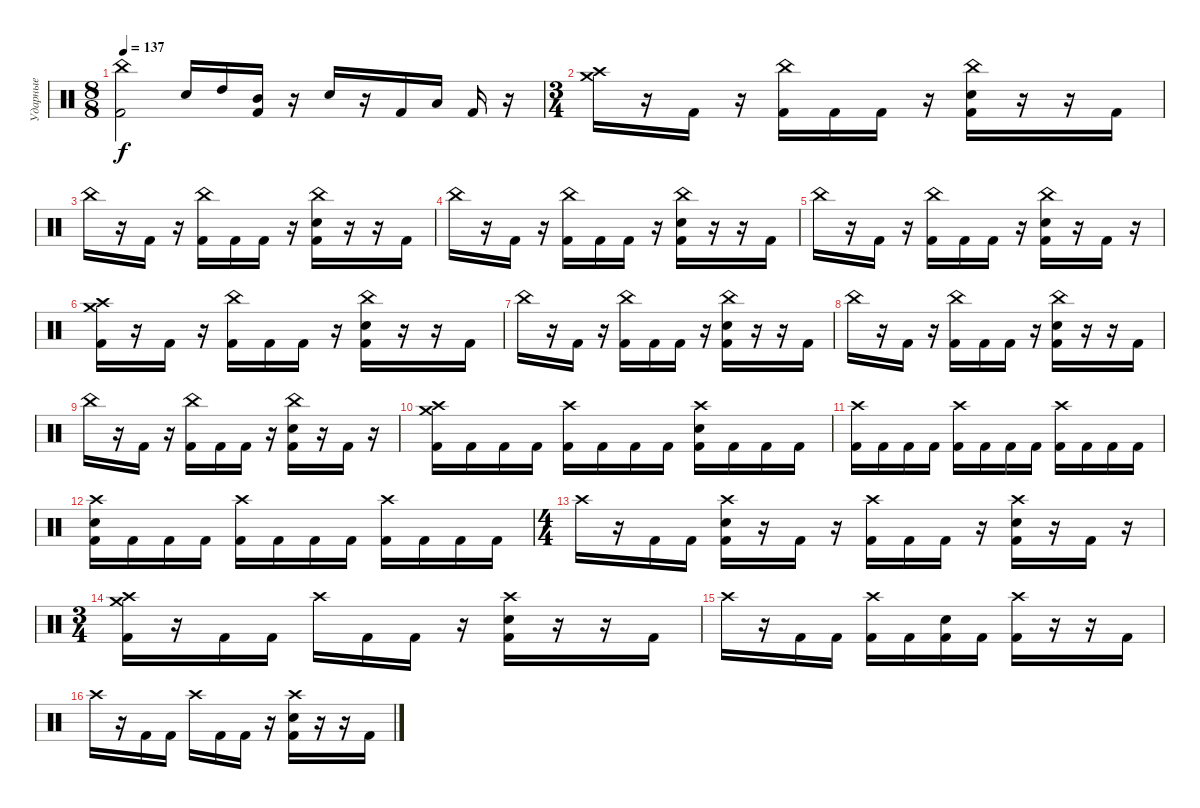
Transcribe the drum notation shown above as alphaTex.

\track ("Ударные" "Ударные") {instrument percussion}
\staff {score}
\articulation defaults
\ts (8 8)
\tempo 137
\clef neutral
\ks c
("China (hit)" "Kick (hit) 2").2{dy f} "Electric Snare (hit)".16 "High Tom (hit)".16 ("Mid Tom (hit)" "Kick (hit) 2").16 r.16 "Electric Snare (hit)".16 r.16 "Kick (hit) 2".16 "Low Tom (hit)".16 "Kick (hit) 2".16 r.16 |
\ts (3 4)
("Crash high (hit)" "Crash medium (hit)").16 r.16 "Kick (hit) 2".16 r.16 ("China (hit)" "Kick (hit) 2").16 "Kick (hit) 2".16 "Kick (hit) 2".16 r.16 ("China (hit)" "Electric Snare (hit)" "Kick (hit) 2").16 r.16 r.16 "Kick (hit) 2".16 |
"China (hit)".16 r.16 "Kick (hit) 2".16 r.16 ("China (hit)" "Kick (hit) 2").16 "Kick (hit) 2".16 "Kick (hit) 2".16 r.16 ("China (hit)" "Electric Snare (hit)" "Kick (hit) 2").16 r.16 r.16 "Kick (hit) 2".16 |
"China (hit)".16 r.16 "Kick (hit) 2".16 r.16 ("China (hit)" "Kick (hit) 2").16 "Kick (hit) 2".16 "Kick (hit) 2".16 r.16 ("China (hit)" "Electric Snare (hit)" "Kick (hit) 2").16 r.16 r.16 "Kick (hit) 2".16 |
"China (hit)".16 r.16 "Kick (hit) 2".16 r.16 ("China (hit)" "Kick (hit) 2").16 "Kick (hit) 2".16 "Kick (hit) 2".16 r.16 ("China (hit)" "Electric Snare (hit)" "Kick (hit) 2").16 r.16 "Kick (hit) 2".16 r.16 |
("Crash high (hit)" "Crash medium (hit)" "Kick (hit) 2").16 r.16 "Kick (hit) 2".16 r.16 ("China (hit)" "Kick (hit) 2").16 "Kick (hit) 2".16 "Kick (hit) 2".16 r.16 ("China (hit)" "Electric Snare (hit)" "Kick (hit) 2").16 r.16 r.16 "Kick (hit) 2".16 |
"China (hit)".16 r.16 "Kick (hit) 2".16 r.16 ("China (hit)" "Kick (hit) 2").16 "Kick (hit) 2".16 "Kick (hit) 2".16 r.16 ("China (hit)" "Electric Snare (hit)" "Kick (hit) 2").16 r.16 r.16 "Kick (hit) 2".16 |
"China (hit)".16 r.16 "Kick (hit) 2".16 r.16 ("China (hit)" "Kick (hit) 2").16 "Kick (hit) 2".16 "Kick (hit) 2".16 r.16 ("China (hit)" "Electric Snare (hit)" "Kick (hit) 2").16 r.16 r.16 "Kick (hit) 2".16 |
"China (hit)".16 r.16 "Kick (hit) 2".16 r.16 ("China (hit)" "Kick (hit) 2").16 "Kick (hit) 2".16 "Kick (hit) 2".16 r.16 ("China (hit)" "Electric Snare (hit)" "Kick (hit) 2").16 r.16 "Kick (hit) 2".16 r.16 |
("Crash medium (hit)" "Crash high (hit)" "Kick (hit) 2").16 "Kick (hit) 2".16 "Kick (hit) 2".16 "Kick (hit) 2".16 ("Crash high (hit)" "Kick (hit) 2").16 "Kick (hit) 2".16 "Kick (hit) 2".16 "Kick (hit) 2".16 ("Crash high (hit)" "Electric Snare (hit)" "Kick (hit) 2").16 "Kick (hit) 2".16 "Kick (hit) 2".16 "Kick (hit) 2".16 |
("Crash high (hit)" "Kick (hit) 2").16 "Kick (hit) 2".16 "Kick (hit) 2".16 "Kick (hit) 2".16 ("Crash high (hit)" "Kick (hit) 2").16 "Kick (hit) 2".16 "Kick (hit) 2".16 "Kick (hit) 2".16 ("Crash high (hit)" "Kick (hit) 2").16 "Kick (hit) 2".16 "Kick (hit) 2".16 "Kick (hit) 2".16 |
("Crash high (hit)" "Electric Snare (hit)" "Kick (hit) 2").16 "Kick (hit) 2".16 "Kick (hit) 2".16 "Kick (hit) 2".16 ("Crash high (hit)" "Kick (hit) 2").16 "Kick (hit) 2".16 "Kick (hit) 2".16 "Kick (hit) 2".16 ("Crash high (hit)" "Kick (hit) 2").16 "Kick (hit) 2".16 "Kick (hit) 2".16 "Kick (hit) 2".16 |
\ts (4 4)
"Crash high (hit)".16 r.16 "Kick (hit) 2".16 "Kick (hit) 2".16 ("Crash high (hit)" "Electric Snare (hit)" "Kick (hit) 2").16 r.16 "Kick (hit) 2".16 r.16 ("Crash high (hit)" "Kick (hit) 2").16 "Kick (hit) 2".16 "Kick (hit) 2".16 r.16 ("Crash high (hit)" "Electric Snare (hit)" "Kick (hit) 2").16 r.16 "Kick (hit) 2".16 r.16 |
\ts (3 4)
("Crash medium (hit)" "Crash high (hit)" "Kick (hit) 2").16 r.16 "Kick (hit) 2".16 "Kick (hit) 2".16 "Crash high (hit)".16 "Kick (hit) 2".16 "Kick (hit) 2".16 r.16 ("Crash high (hit)" "Electric Snare (hit)" "Kick (hit) 2").16 r.16 r.16 "Kick (hit) 2".16 |
"Crash high (hit)".16 r.16 "Kick (hit) 2".16 "Kick (hit) 2".16 ("Crash high (hit)" "Kick (hit) 2").16 "Kick (hit) 2".16 ("Electric Snare (hit)" "Kick (hit) 2").16 "Kick (hit) 2".16 ("Crash high (hit)" "Kick (hit) 2").16 r.16 r.16 "Kick (hit) 2".16 |
"Crash high (hit)".16 r.16 "Kick (hit) 2".16 "Kick (hit) 2".16 "Crash high (hit)".16 "Kick (hit) 2".16 "Kick (hit) 2".16 r.16 ("Crash high (hit)" "Electric Snare (hit)" "Kick (hit) 2").16 r.16 r.16 "Kick (hit) 2".16
